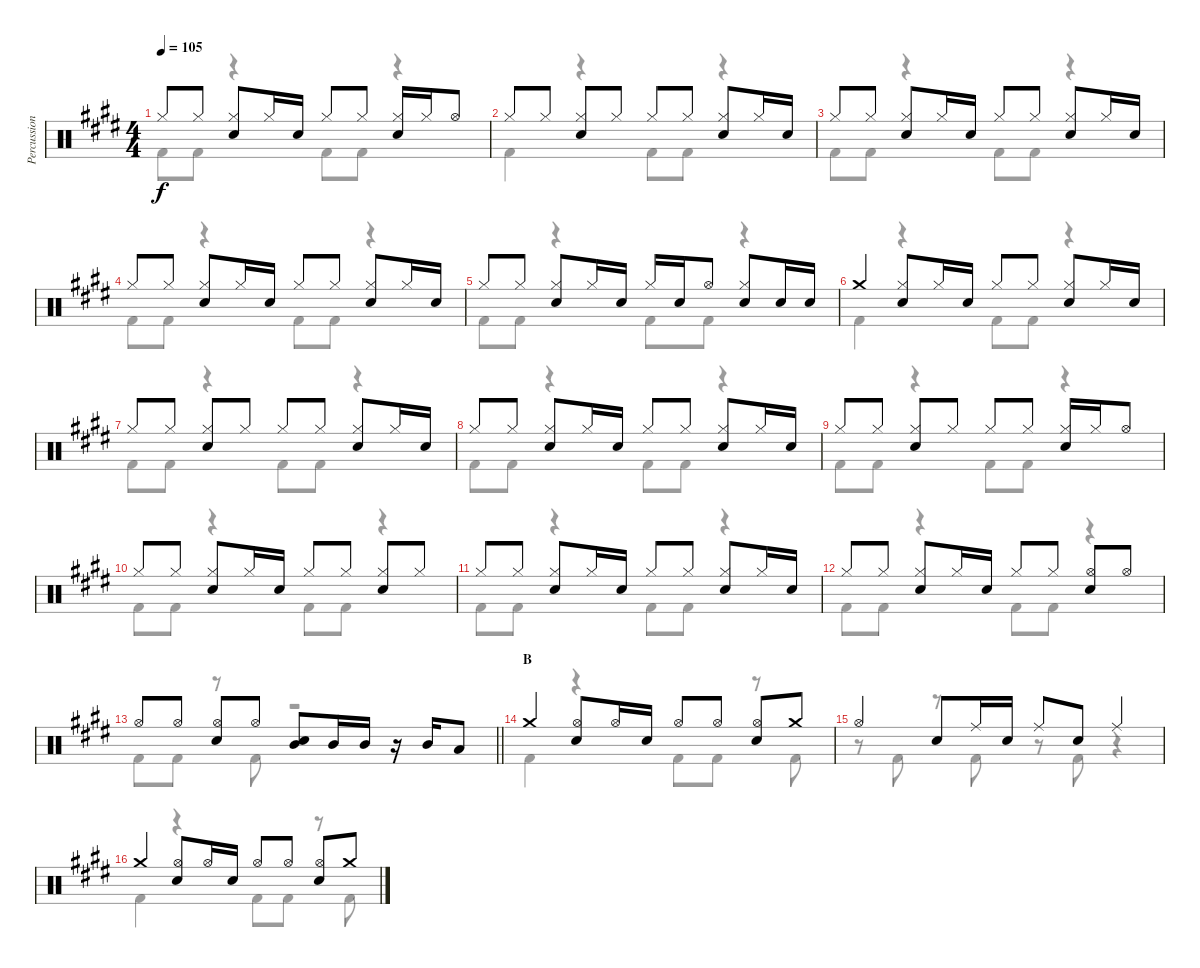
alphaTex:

\track ("Percussion" "Percussion") {instrument percussion}
\staff {score}
\articulation defaults
\voice
\ts (4 4)
\tempo 105
\clef neutral
\ks e "Hi-Hat (closed)".8{dy f} "Hi-Hat (closed)".8
("Hi-Hat (closed)" "Snare (hit) 2").8 "Hi-Hat (closed)".16 "Snare (hit) 2".16 "Hi-Hat (closed)".8 "Hi-Hat (closed)".8 ("Hi-Hat (closed)" "Snare (hit) 2").16 "Hi-Hat (closed)".16 "Hi-Hat (open)".8 |
"Hi-Hat (closed)".8 "Hi-Hat (closed)".8 ("Hi-Hat (closed)" "Snare (hit) 2").8 "Hi-Hat (closed)".8 "Hi-Hat (closed)".8 "Hi-Hat (closed)".8 ("Hi-Hat (closed)" "Snare (hit) 2").8 "Hi-Hat (closed)".16 "Snare (hit) 2".16 |
"Hi-Hat (closed)".8 "Hi-Hat (closed)".8 ("Hi-Hat (closed)" "Snare (hit) 2").8 "Hi-Hat (closed)".16 "Snare (hit) 2".16 "Hi-Hat (closed)".8 "Hi-Hat (closed)".8 ("Hi-Hat (closed)" "Snare (hit) 2").8 "Hi-Hat (closed)".16 "Snare (hit) 2".16 |
"Hi-Hat (closed)".8 "Hi-Hat (closed)".8 ("Hi-Hat (closed)" "Snare (hit) 2").8 "Hi-Hat (closed)".16 "Snare (hit) 2".16 "Hi-Hat (closed)".8 "Hi-Hat (closed)".8 ("Hi-Hat (closed)" "Snare (hit) 2").8 "Hi-Hat (closed)".16 "Snare (hit) 2".16 |
"Hi-Hat (closed)".8 "Hi-Hat (closed)".8 ("Hi-Hat (closed)" "Snare (hit) 2").8 "Hi-Hat (closed)".16 "Snare (hit) 2".16 "Hi-Hat (closed)".16 "Snare (hit) 2".16 "Hi-Hat (open)".8 ("Hi-Hat (closed)" "Snare (hit) 2").8 "Snare (hit) 2".16 "Snare (hit) 2".16 |
"Crash medium (hit)".4 ("Hi-Hat (closed)" "Snare (hit) 2").8 "Hi-Hat (closed)".16 "Snare (hit) 2".16 "Hi-Hat (closed)".8 "Hi-Hat (closed)".8 ("Hi-Hat (closed)" "Snare (hit) 2").8 "Hi-Hat (closed)".16 "Snare (hit) 2".16 |
"Hi-Hat (closed)".8 "Hi-Hat (closed)".8 ("Hi-Hat (closed)" "Snare (hit) 2").8 "Hi-Hat (closed)".8 "Hi-Hat (closed)".8 "Hi-Hat (closed)".8 ("Hi-Hat (closed)" "Snare (hit) 2").8 "Hi-Hat (closed)".16 "Snare (hit) 2".16 |
"Hi-Hat (closed)".8 "Hi-Hat (closed)".8 ("Hi-Hat (closed)" "Snare (hit) 2").8 "Hi-Hat (closed)".16 "Snare (hit) 2".16 "Hi-Hat (closed)".8 "Hi-Hat (closed)".8 ("Hi-Hat (closed)" "Snare (hit) 2").8 "Hi-Hat (closed)".16 "Snare (hit) 2".16 |
"Hi-Hat (closed)".8 "Hi-Hat (closed)".8 ("Hi-Hat (closed)" "Snare (hit) 2").8 "Hi-Hat (closed)".8 "Hi-Hat (closed)".8 "Hi-Hat (closed)".8 ("Hi-Hat (closed)" "Snare (hit) 2").16 "Hi-Hat (closed)".16 "Hi-Hat (open)".8 |
"Hi-Hat (closed)".8 "Hi-Hat (closed)".8 ("Hi-Hat (closed)" "Snare (hit) 2").8 "Hi-Hat (closed)".16 "Snare (hit) 2".16 "Hi-Hat (closed)".8 "Hi-Hat (closed)".8 ("Hi-Hat (closed)" "Snare (hit) 2").8 "Hi-Hat (closed)".8 |
"Hi-Hat (closed)".8 "Hi-Hat (closed)".8 ("Hi-Hat (closed)" "Snare (hit) 2").8 "Hi-Hat (closed)".16 "Snare (hit) 2".16 "Hi-Hat (closed)".8 "Hi-Hat (closed)".8 ("Hi-Hat (closed)" "Snare (hit) 2").8 "Hi-Hat (closed)".16 "Snare (hit) 2".16 |
"Hi-Hat (closed)".8 "Hi-Hat (closed)".8 ("Hi-Hat (closed)" "Snare (hit) 2").8 "Hi-Hat (closed)".16 "Snare (hit) 2".16 "Hi-Hat (closed)".8 "Hi-Hat (closed)".8 ("Hi-Hat (open)" "Snare (hit) 2").8 "Hi-Hat (open)".8 |
\barLineRight lightlight "Hi-Hat (open)".8 "Hi-Hat (open)".8
("Hi-Hat (open)" "Snare (hit) 2").8 "Hi-Hat (open)".8 ("Snare (hit) 2" "Mid Tom (hit)").8 "Mid Tom (hit)".16 "Mid Tom (hit)".16 r.16 "Mid Tom (hit)".16 "Low Tom (hit)".8 |
\section ("" "B")
"Crash medium (hit)".4 ("Hi-Hat (open)" "Snare (hit) 2").8 "Hi-Hat (open)".16 "Snare (hit) 2".16 "Hi-Hat (open)".8 "Hi-Hat (open)".8 ("Hi-Hat (open)" "Snare (hit) 2").8 "Crash medium (hit)".8 |
"Hi-Hat (open)".4 "Snare (hit) 2".8 "Ride (middle)".16 "Snare (hit) 2".16 "Ride (middle)".8 "Snare (hit) 2".8 "Ride (middle)".4 |
"Crash medium (hit)".4 ("Hi-Hat (open)" "Snare (hit) 2").8 "Hi-Hat (open)".16 "Snare (hit) 2".16 "Hi-Hat (open)".8 "Hi-Hat (open)".8 ("Hi-Hat (open)" "Snare (hit) 2").8 "Crash medium (hit)".8
\voice
\clef neutral
\ottava regular
\simile none
\ks e "Kick (hit) 2".8{dy f} "Kick (hit) 2".8
r.4 "Kick (hit) 2".8 "Kick (hit) 2".8 r.4 |
"Kick (hit) 2".4 r.4 "Kick (hit) 2".8 "Kick (hit) 2".8 r.4 |
"Kick (hit) 2".8 "Kick (hit) 2".8 r.4 "Kick (hit) 2".8 "Kick (hit) 2".8 r.4 |
"Kick (hit) 2".8 "Kick (hit) 2".8 r.4 "Kick (hit) 2".8 "Kick (hit) 2".8 r.4 |
"Kick (hit) 2".8 "Kick (hit) 2".8 r.4 "Kick (hit) 2".8 "Kick (hit) 2".8 r.4 |
"Kick (hit) 2".4 r.4 "Kick (hit) 2".8 "Kick (hit) 2".8 r.4 |
"Kick (hit) 2".8 "Kick (hit) 2".8 r.4 "Kick (hit) 2".8 "Kick (hit) 2".8 r.4 |
"Kick (hit) 2".8 "Kick (hit) 2".8 r.4 "Kick (hit) 2".8 "Kick (hit) 2".8 r.4 |
"Kick (hit) 2".8 "Kick (hit) 2".8 r.4 "Kick (hit) 2".8 "Kick (hit) 2".8 r.4 |
"Kick (hit) 2".8 "Kick (hit) 2".8 r.4 "Kick (hit) 2".8 "Kick (hit) 2".8 r.4 |
"Kick (hit) 2".8 "Kick (hit) 2".8 r.4 "Kick (hit) 2".8 "Kick (hit) 2".8 r.4 |
"Kick (hit) 2".8 "Kick (hit) 2".8 r.4 "Kick (hit) 2".8 "Kick (hit) 2".8 r.4 |
\barLineRight lightlight "Kick (hit) 2".8 "Kick (hit) 2".8
r.8 "Kick (hit) 2".8 r.2 |
"Kick (hit) 2".4 r.4 "Kick (hit) 2".8 "Kick (hit) 2".8 r.8 "Kick (hit) 2".8 |
r.8 "Kick (hit) 2".8 r.8 "Kick (hit) 2".8 r.8 "Kick (hit) 2".8 r.4 |
"Kick (hit) 2".4 r.4 "Kick (hit) 2".8 "Kick (hit) 2".8 r.8 "Kick (hit) 2".8
